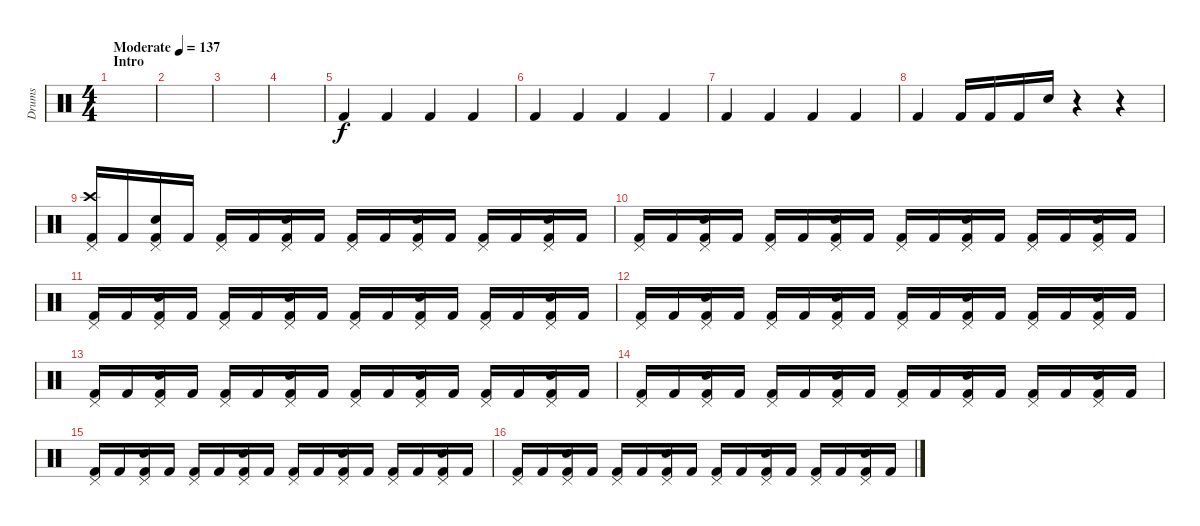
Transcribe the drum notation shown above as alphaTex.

\track ("Drums" "Drums") {instrument percussion}
\staff
\articulation defaults
\ts (4 4)
\section ("" "Intro")
\tempo (137 "Moderate")
\clef neutral
\ks c
|
|
|
|
"Kick (hit) 2".4 "Kick (hit) 2".4 "Kick (hit) 2".4 "Kick (hit) 2".4 |
"Kick (hit) 2".4 "Kick (hit) 2".4 "Kick (hit) 2".4 "Kick (hit) 2".4 |
"Kick (hit) 2".4 "Kick (hit) 2".4 "Kick (hit) 2".4 "Kick (hit) 2".4 |
"Kick (hit) 2".4 "Kick (hit) 2".16 "Kick (hit) 2".16 "Kick (hit) 2".16 "Snare (hit) 2".16 r.4 r.4 |
("Crash high (hit)" "Pedal Hi-Hat (hit)" "Kick (hit) 2").16 "Kick (hit) 2".16 ("Pedal Hi-Hat (hit)" "Snare (hit) 2" "Kick (hit) 2").16 "Kick (hit) 2".16 ("Pedal Hi-Hat (hit)" "Kick (hit) 2").16 "Kick (hit) 2".16 ("Pedal Hi-Hat (hit)" "Snare (hit) 2" "Kick (hit) 2").16 "Kick (hit) 2".16 ("Pedal Hi-Hat (hit)" "Kick (hit) 2").16 "Kick (hit) 2".16 ("Pedal Hi-Hat (hit)" "Snare (hit) 2" "Kick (hit) 2").16 "Kick (hit) 2".16 ("Pedal Hi-Hat (hit)" "Kick (hit) 2").16 "Kick (hit) 2".16 ("Pedal Hi-Hat (hit)" "Snare (hit) 2" "Kick (hit) 2").16 "Kick (hit) 2".16 |
("Pedal Hi-Hat (hit)" "Kick (hit) 2").16 "Kick (hit) 2".16 ("Pedal Hi-Hat (hit)" "Snare (hit) 2" "Kick (hit) 2").16 "Kick (hit) 2".16 ("Pedal Hi-Hat (hit)" "Kick (hit) 2").16 "Kick (hit) 2".16 ("Pedal Hi-Hat (hit)" "Snare (hit) 2" "Kick (hit) 2").16 "Kick (hit) 2".16 ("Pedal Hi-Hat (hit)" "Kick (hit) 2").16 "Kick (hit) 2".16 ("Pedal Hi-Hat (hit)" "Snare (hit) 2" "Kick (hit) 2").16 "Kick (hit) 2".16 ("Pedal Hi-Hat (hit)" "Kick (hit) 2").16 "Kick (hit) 2".16 ("Pedal Hi-Hat (hit)" "Snare (hit) 2" "Kick (hit) 2").16 "Kick (hit) 2".16 |
("Pedal Hi-Hat (hit)" "Kick (hit) 2").16 "Kick (hit) 2".16 ("Pedal Hi-Hat (hit)" "Snare (hit) 2" "Kick (hit) 2").16 "Kick (hit) 2".16 ("Pedal Hi-Hat (hit)" "Kick (hit) 2").16 "Kick (hit) 2".16 ("Pedal Hi-Hat (hit)" "Snare (hit) 2" "Kick (hit) 2").16 "Kick (hit) 2".16 ("Pedal Hi-Hat (hit)" "Kick (hit) 2").16 "Kick (hit) 2".16 ("Pedal Hi-Hat (hit)" "Snare (hit) 2" "Kick (hit) 2").16 "Kick (hit) 2".16 ("Pedal Hi-Hat (hit)" "Kick (hit) 2").16 "Kick (hit) 2".16 ("Pedal Hi-Hat (hit)" "Snare (hit) 2" "Kick (hit) 2").16 "Kick (hit) 2".16 |
("Pedal Hi-Hat (hit)" "Kick (hit) 2").16 "Kick (hit) 2".16 ("Pedal Hi-Hat (hit)" "Snare (hit) 2" "Kick (hit) 2").16 "Kick (hit) 2".16 ("Pedal Hi-Hat (hit)" "Kick (hit) 2").16 "Kick (hit) 2".16 ("Pedal Hi-Hat (hit)" "Snare (hit) 2" "Kick (hit) 2").16 "Kick (hit) 2".16 ("Pedal Hi-Hat (hit)" "Kick (hit) 2").16 "Kick (hit) 2".16 ("Pedal Hi-Hat (hit)" "Snare (hit) 2" "Kick (hit) 2").16 "Kick (hit) 2".16 ("Pedal Hi-Hat (hit)" "Kick (hit) 2").16 "Kick (hit) 2".16 ("Pedal Hi-Hat (hit)" "Snare (hit) 2" "Kick (hit) 2").16 "Kick (hit) 2".16 |
("Pedal Hi-Hat (hit)" "Kick (hit) 2").16 "Kick (hit) 2".16 ("Pedal Hi-Hat (hit)" "Snare (hit) 2" "Kick (hit) 2").16 "Kick (hit) 2".16 ("Pedal Hi-Hat (hit)" "Kick (hit) 2").16 "Kick (hit) 2".16 ("Pedal Hi-Hat (hit)" "Snare (hit) 2" "Kick (hit) 2").16 "Kick (hit) 2".16 ("Pedal Hi-Hat (hit)" "Kick (hit) 2").16 "Kick (hit) 2".16 ("Pedal Hi-Hat (hit)" "Snare (hit) 2" "Kick (hit) 2").16 "Kick (hit) 2".16 ("Pedal Hi-Hat (hit)" "Kick (hit) 2").16 "Kick (hit) 2".16 ("Pedal Hi-Hat (hit)" "Snare (hit) 2" "Kick (hit) 2").16 "Kick (hit) 2".16 |
("Pedal Hi-Hat (hit)" "Kick (hit) 2").16 "Kick (hit) 2".16 ("Pedal Hi-Hat (hit)" "Snare (hit) 2" "Kick (hit) 2").16 "Kick (hit) 2".16 ("Pedal Hi-Hat (hit)" "Kick (hit) 2").16 "Kick (hit) 2".16 ("Pedal Hi-Hat (hit)" "Snare (hit) 2" "Kick (hit) 2").16 "Kick (hit) 2".16 ("Pedal Hi-Hat (hit)" "Kick (hit) 2").16 "Kick (hit) 2".16 ("Pedal Hi-Hat (hit)" "Snare (hit) 2" "Kick (hit) 2").16 "Kick (hit) 2".16 ("Pedal Hi-Hat (hit)" "Kick (hit) 2").16 "Kick (hit) 2".16 ("Pedal Hi-Hat (hit)" "Snare (hit) 2" "Kick (hit) 2").16 "Kick (hit) 2".16 |
("Pedal Hi-Hat (hit)" "Kick (hit) 2").16 "Kick (hit) 2".16 ("Pedal Hi-Hat (hit)" "Snare (hit) 2" "Kick (hit) 2").16 "Kick (hit) 2".16 ("Pedal Hi-Hat (hit)" "Kick (hit) 2").16 "Kick (hit) 2".16 ("Pedal Hi-Hat (hit)" "Snare (hit) 2" "Kick (hit) 2").16 "Kick (hit) 2".16 ("Pedal Hi-Hat (hit)" "Kick (hit) 2").16 "Kick (hit) 2".16 ("Pedal Hi-Hat (hit)" "Snare (hit) 2" "Kick (hit) 2").16 "Kick (hit) 2".16 ("Pedal Hi-Hat (hit)" "Kick (hit) 2").16 "Kick (hit) 2".16 ("Pedal Hi-Hat (hit)" "Snare (hit) 2" "Kick (hit) 2").16 "Kick (hit) 2".16 |
("Pedal Hi-Hat (hit)" "Kick (hit) 2").16 "Kick (hit) 2".16 ("Pedal Hi-Hat (hit)" "Snare (hit) 2" "Kick (hit) 2").16 "Kick (hit) 2".16 ("Pedal Hi-Hat (hit)" "Kick (hit) 2").16 "Kick (hit) 2".16 ("Pedal Hi-Hat (hit)" "Snare (hit) 2" "Kick (hit) 2").16 "Kick (hit) 2".16 ("Pedal Hi-Hat (hit)" "Kick (hit) 2").16 "Kick (hit) 2".16 ("Pedal Hi-Hat (hit)" "Snare (hit) 2" "Kick (hit) 2").16 "Kick (hit) 2".16 ("Pedal Hi-Hat (hit)" "Kick (hit) 2").16 "Kick (hit) 2".16 ("Pedal Hi-Hat (hit)" "Snare (hit) 2" "Kick (hit) 2").16 "Kick (hit) 2".16
